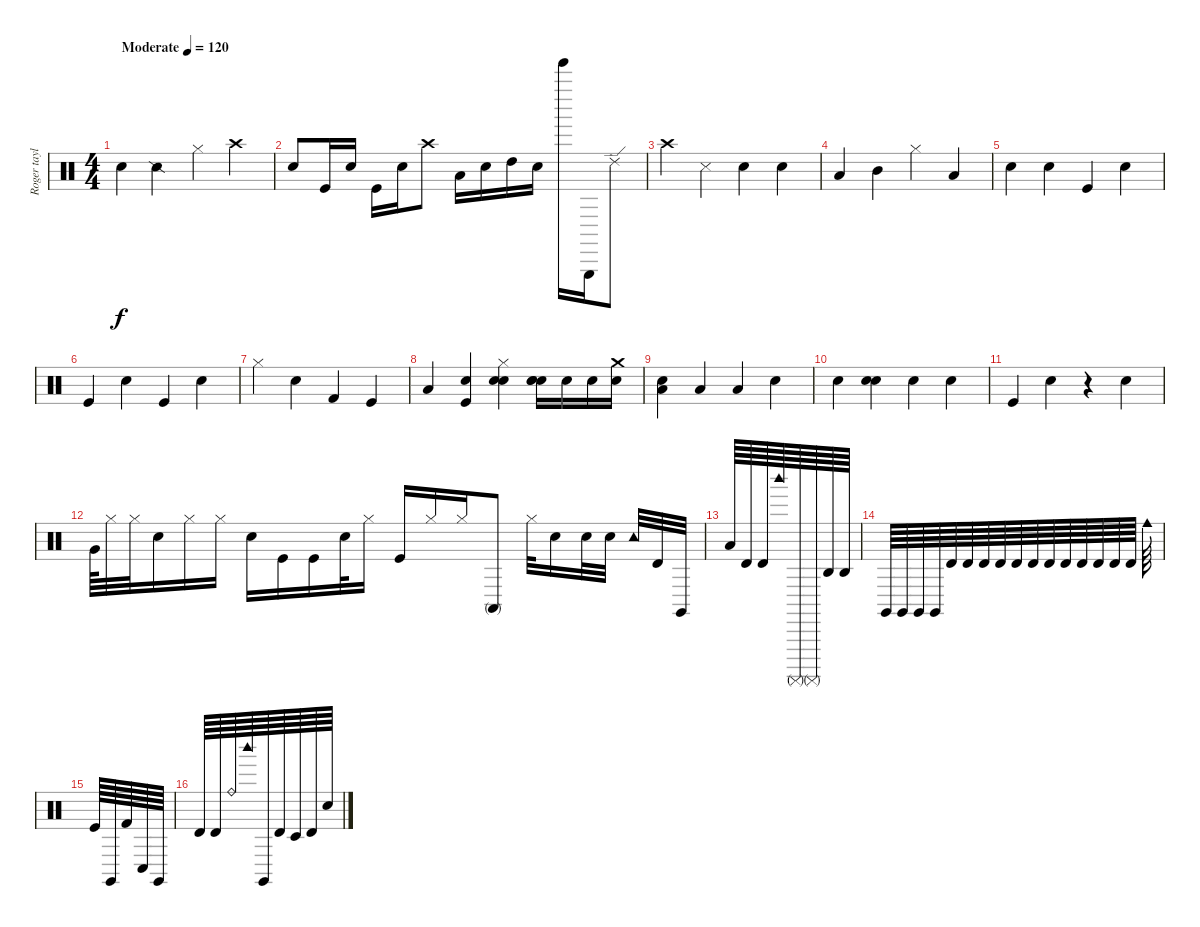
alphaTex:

\track ("Roger taylor" "Roger tayl") {instrument percussion}
\staff {score}
\articulation defaults
\ts (4 4)
\tempo (120 "Moderate")
\clef neutral
\ks c "Snare (hit)".4{dy f} "Snare (side stick) 2".4 "Hi-Hat (closed)".4 "Crash high (hit)".4
|
"Snare (hit)".8 "Kick (hit)".16 "Snare (hit) 2".16 "Kick (hit)".16 "Snare (hit) 2".16 "Crash high (hit)".8 "Low Floor Tom (hit)".16 "Snare (hit) 2".16 "High Tom (hit)".16 "Snare (hit)".16 "Tinkle Bell (hit)".16 "Triangle (hit)".16 "Ride (edge) 2".8 |
"Crash high (hit)".4 "Snare (side stick) 3".4 "Snare (hit)".4 "Snare (hit)".4 |
"Low Tom (hit)".4 "Mid Tom (hit)".4 "Hi-Hat (closed)".4 "Low Floor Tom (hit)".4 |
"Snare (hit)".4 "Snare (hit)".4 "Kick (hit)".4 "Snare (hit) 2".4 |
"Kick (hit)".4 "Snare (hit) 2".4 "Kick (hit)".4 "Snare (hit) 2".4 |
"Hi-Hat (closed)".4 "Snare (hit) 2".4 "Kick (hit) 2".4 "Kick (hit)".4 |
"Low Floor Tom (hit)".4 ("Kick (hit)" "Snare (hit)").4 ("Metronome (bell)" "Hi-Hat (closed)" "Snare (hit)").4 ("Snare (hit)" "Snare (hit)" "Snare (hit)").16 "Metronome (bell)".16 "Snare (hit)".16 ("Crash medium (hit)" "Snare (hit)").16 |
("Snare (hit)" "Low Tom (hit)").4 "Low Tom (hit)".4 "Low Tom (hit)".4 "Metronome (bell)".4 |
"Metronome (bell)".4 ("Metronome (bell)" "Snare (hit)").4 "Snare (hit)".4 "Snare (hit)".4 |
"Kick (hit)".4 "Snare (hit) 2".4 r.4 "Snare (hit) 2".4 |
"Very Low Tom (hit)".64 "Hi-Hat (closed)".32 "Hi-Hat (closed)".32 "Snare (hit)".16 "Hi-Hat (closed)".16 "Hi-Hat (closed)".16 "Metronome (bell)".16 "Kick (hit)".16 "Kick (hit)".16 "Snare (hit) 2".32 "Hi-Hat (closed)".16 "Kick (hit)".16 "Hi-Hat (closed)".16 "Hi-Hat (closed)".16 "Conga high (mute)".8 "Hi-Hat (closed)".32 "Metronome (bell)".16 "Metronome (bell)".32 "Metronome (bell)".32 "Tambourine (hit)".32 "Timbale high (hit)".32 "Claves (hit)".32 |
"Low Tom (hit)".64 "Timbale high (hit)".64 "Timbale high (hit)".64 "Woodblock high (hit)".64 "Surdo (mute)".64 "Surdo (mute)".64 "Agogo high (hit)".64 "Agogo high (hit)".64 |
"Claves (hit)".64 "Claves (hit)".64 "Claves (hit)".64 "Claves (hit)".64 "Timbale high (hit)".64 "Timbale high (hit)".64 "Timbale high (hit)".64 "Timbale high (hit)".64 "Timbale high (hit)".64 "Timbale high (hit)".64 "Timbale high (hit)".64 "Timbale high (hit)".64 "Timbale high (hit)".64 "Timbale high (hit)".64 "Timbale high (hit)".64 "Timbale high (hit)".64 "Cowbell medium (hit)".64 |
"Kick (hit)".64 "Claves (hit)".64 "Kick (hit) 2".64 "Conga low (hit)".64 "Claves (hit)".64 |
"Timbale high (hit)".64 "Timbale high (hit)".64 "Ride (bell)".64 "Woodblock high (hit)".64 "Claves (hit)".64 "Timbale high (hit)".64 "Timbale low (hit)".64 "Timbale high (hit)".64 "Snare (hit)".64
